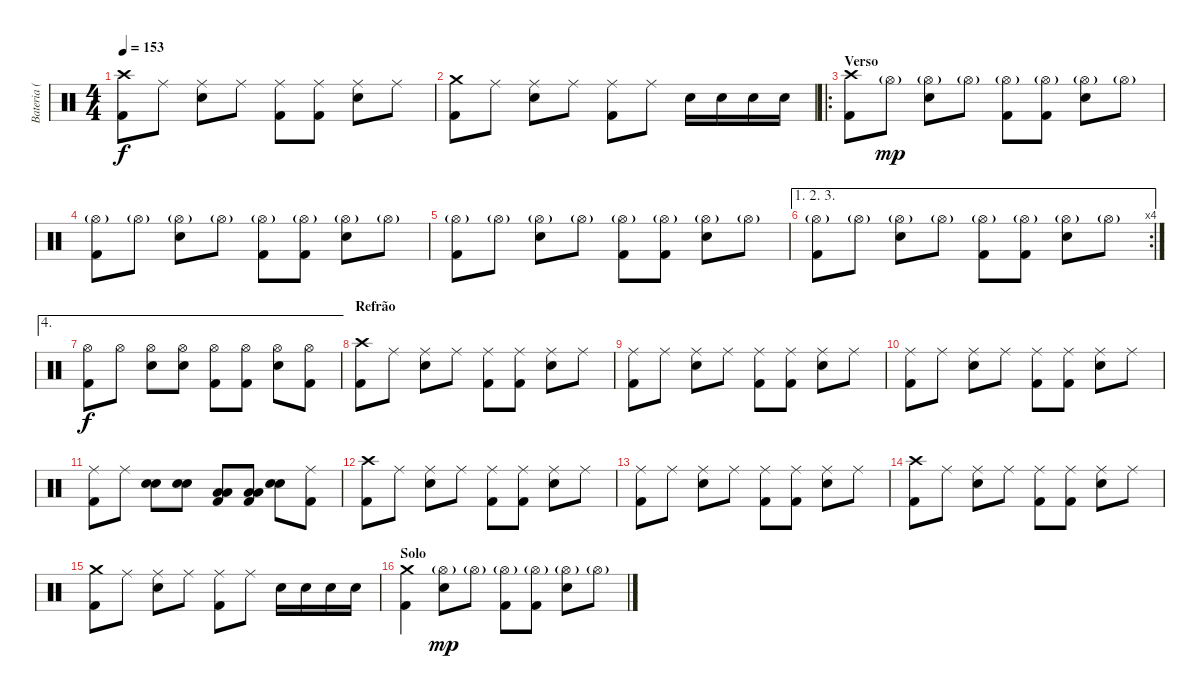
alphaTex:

\track ("Bateria ( Marky Ramone)" "Bateria ( ") {instrument percussion}
\staff {score}
\articulation defaults
\ts (4 4)
\tempo 153
\clef neutral
\ks c
("Crash high (hit)" "Kick (hit) 2").8{dy f} "Ride (middle)".8 ("Ride (middle)" "Electric Snare (hit)").8 "Ride (middle)".8 ("Ride (middle)" "Kick (hit) 2").8 ("Ride (middle)" "Kick (hit) 2").8 ("Ride (middle)" "Electric Snare (hit)").8 "Ride (middle)".8 |
("Crash medium (hit)" "Kick (hit) 2").8 "Ride (middle)".8 ("Ride (middle)" "Electric Snare (hit)").8 "Ride (middle)".8 ("Ride (middle)" "Kick (hit) 2").8 "Ride (middle)".8 "Electric Snare (hit)".16 "Electric Snare (hit)".16 "Electric Snare (hit)".16 "Electric Snare (hit)".16 |
\ro
\section ("" "Verso")
("Crash high (hit)" "Kick (hit) 2").8 "Hi-Hat (open)"{g}.8{dy mp} ("Hi-Hat (open)"{g} "Electric Snare (hit)").8 "Hi-Hat (open)"{g}.8 ("Hi-Hat (open)"{g} "Kick (hit) 2").8 ("Hi-Hat (open)"{g} "Kick (hit) 2").8 ("Hi-Hat (open)"{g} "Electric Snare (hit)").8 "Hi-Hat (open)"{g}.8 |
("Hi-Hat (open)"{g} "Kick (hit) 2").8 "Hi-Hat (open)"{g}.8 ("Hi-Hat (open)"{g} "Electric Snare (hit)").8 "Hi-Hat (open)"{g}.8 ("Hi-Hat (open)"{g} "Kick (hit) 2").8 ("Hi-Hat (open)"{g} "Kick (hit) 2").8 ("Hi-Hat (open)"{g} "Electric Snare (hit)").8 "Hi-Hat (open)"{g}.8 |
("Hi-Hat (open)"{g} "Kick (hit) 2").8 "Hi-Hat (open)"{g}.8 ("Hi-Hat (open)"{g} "Electric Snare (hit)").8 "Hi-Hat (open)"{g}.8 ("Hi-Hat (open)"{g} "Kick (hit) 2").8 ("Hi-Hat (open)"{g} "Kick (hit) 2").8 ("Hi-Hat (open)"{g} "Electric Snare (hit)").8 "Hi-Hat (open)"{g}.8 |
\ae (1 2 3)
\rc 4
("Hi-Hat (open)"{g} "Kick (hit) 2").8 "Hi-Hat (open)"{g}.8 ("Hi-Hat (open)"{g} "Electric Snare (hit)").8 "Hi-Hat (open)"{g}.8 ("Hi-Hat (open)"{g} "Kick (hit) 2").8 ("Hi-Hat (open)"{g} "Kick (hit) 2").8 ("Hi-Hat (open)"{g} "Electric Snare (hit)").8 "Hi-Hat (open)"{g}.8 |
\ae 4
("Hi-Hat (open)" "Kick (hit) 2").8{dy f} "Hi-Hat (open)".8 ("Hi-Hat (open)" "Electric Snare (hit)").8 ("Hi-Hat (open)" "Electric Snare (hit)").8 ("Hi-Hat (open)" "Kick (hit) 2").8 ("Hi-Hat (open)" "Kick (hit) 2").8 ("Hi-Hat (open)" "Electric Snare (hit)").8 ("Hi-Hat (open)" "Kick (hit) 2").8 |
\section ("" "Refrão")
("Crash high (hit)" "Kick (hit) 2").8 "Ride (middle)".8 ("Ride (middle)" "Electric Snare (hit)").8 "Ride (middle)".8 ("Ride (middle)" "Kick (hit) 2").8 ("Ride (middle)" "Kick (hit) 2").8 ("Ride (middle)" "Electric Snare (hit)").8 "Ride (middle)".8 |
("Ride (middle)" "Kick (hit) 2").8 "Ride (middle)".8 ("Ride (middle)" "Electric Snare (hit)").8 "Ride (middle)".8 ("Ride (middle)" "Kick (hit) 2").8 ("Ride (middle)" "Kick (hit) 2").8 ("Ride (middle)" "Electric Snare (hit)").8 "Ride (middle)".8 |
("Ride (middle)" "Kick (hit) 2").8 "Ride (middle)".8 ("Ride (middle)" "Electric Snare (hit)").8 "Ride (middle)".8 ("Ride (middle)" "Kick (hit) 2").8 ("Ride (middle)" "Kick (hit) 2").8 ("Ride (middle)" "Electric Snare (hit)").8 "Ride (middle)".8 |
("Ride (middle)" "Kick (hit) 2").8 "Ride (middle)".8 ("Electric Snare (hit)" "Electric Snare (hit)").8 ("Electric Snare (hit)" "Electric Snare (hit)").8 ("Low Tom (hit)" "Low Tom (hit)" "Kick (hit) 2").8 ("Low Tom (hit)" "Low Tom (hit)" "Kick (hit) 2").8 ("Electric Snare (hit)" "Electric Snare (hit)").8 ("Ride (middle)" "Kick (hit) 2").8 |
("Crash high (hit)" "Kick (hit) 2").8 "Ride (middle)".8 ("Ride (middle)" "Electric Snare (hit)").8 "Ride (middle)".8 ("Ride (middle)" "Kick (hit) 2").8 ("Ride (middle)" "Kick (hit) 2").8 ("Ride (middle)" "Electric Snare (hit)").8 "Ride (middle)".8 |
("Ride (middle)" "Kick (hit) 2").8 "Ride (middle)".8 ("Ride (middle)" "Electric Snare (hit)").8 "Ride (middle)".8 ("Ride (middle)" "Kick (hit) 2").8 ("Ride (middle)" "Kick (hit) 2").8 ("Ride (middle)" "Electric Snare (hit)").8 "Ride (middle)".8 |
("Crash high (hit)" "Kick (hit) 2").8 "Ride (middle)".8 ("Ride (middle)" "Electric Snare (hit)").8 "Ride (middle)".8 ("Ride (middle)" "Kick (hit) 2").8 ("Ride (middle)" "Kick (hit) 2").8 ("Ride (middle)" "Electric Snare (hit)").8 "Ride (middle)".8 |
("Crash medium (hit)" "Kick (hit) 2").8 "Ride (middle)".8 ("Ride (middle)" "Electric Snare (hit)").8 "Ride (middle)".8 ("Ride (middle)" "Kick (hit) 2").8 "Ride (middle)".8 "Electric Snare (hit)".16 "Electric Snare (hit)".16 "Electric Snare (hit)".16 "Electric Snare (hit)".16 |
\section ("" "Solo")
("Crash medium (hit)" "Kick (hit) 2").4 ("Hi-Hat (open)"{g} "Electric Snare (hit)").8{dy mp} "Hi-Hat (open)"{g}.8 ("Hi-Hat (open)"{g} "Kick (hit) 2").8 ("Hi-Hat (open)"{g} "Kick (hit) 2").8 ("Hi-Hat (open)"{g} "Electric Snare (hit)").8 "Hi-Hat (open)"{g}.8
